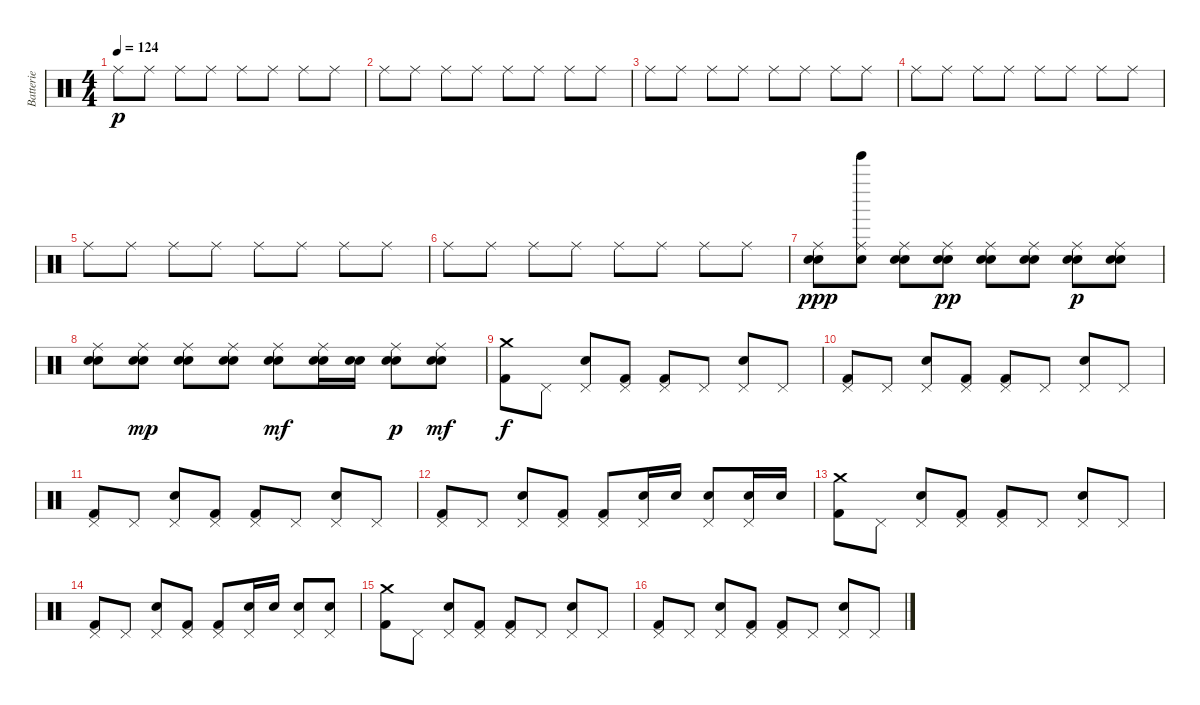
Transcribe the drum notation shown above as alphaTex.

\track ("Batterie" "Batterie") {instrument percussion}
\staff {score}
\articulation defaults
\ts (4 4)
\tempo 124
\clef neutral
\ks c "Ride (middle)".8{dy p} "Ride (middle)".8 "Ride (middle)".8 "Ride (middle)".8 "Ride (middle)".8 "Ride (middle)".8 "Ride (middle)".8 "Ride (middle)".8
|
"Ride (middle)".8 "Ride (middle)".8 "Ride (middle)".8 "Ride (middle)".8 "Ride (middle)".8 "Ride (middle)".8 "Ride (middle)".8 "Ride (middle)".8 |
"Ride (middle)".8 "Ride (middle)".8 "Ride (middle)".8 "Ride (middle)".8 "Ride (middle)".8 "Ride (middle)".8 "Ride (middle)".8 "Ride (middle)".8 |
"Ride (middle)".8 "Ride (middle)".8 "Ride (middle)".8 "Ride (middle)".8 "Ride (middle)".8 "Ride (middle)".8 "Ride (middle)".8 "Ride (middle)".8 |
"Ride (middle)".8 "Ride (middle)".8 "Ride (middle)".8 "Ride (middle)".8 "Ride (middle)".8 "Ride (middle)".8 "Ride (middle)".8 "Ride (middle)".8 |
"Ride (middle)".8 "Ride (middle)".8 "Ride (middle)".8 "Ride (middle)".8 "Ride (middle)".8 "Ride (middle)".8 "Ride (middle)".8 "Ride (middle)".8 |
("Ride (middle)" "Electric Snare (hit)" "Snare (hit) 2").8{dy ppp} ("Ride (middle)" "Electric Snare (hit)" "Tinkle Bell (hit)").8 ("Ride (middle)" "Electric Snare (hit)" "Snare (hit) 2").8 ("Ride (middle)" "Electric Snare (hit)" "Snare (hit) 2").8{dy pp} ("Ride (middle)" "Electric Snare (hit)" "Snare (hit) 2").8 ("Ride (middle)" "Electric Snare (hit)" "Snare (hit) 2").8 ("Ride (middle)" "Electric Snare (hit)" "Snare (hit) 2").8{dy p} ("Ride (middle)" "Electric Snare (hit)" "Snare (hit) 2").8 |
("Ride (middle)" "Electric Snare (hit)" "Snare (hit) 2").8 ("Ride (middle)" "Electric Snare (hit)" "Snare (hit) 2").8{dy mp} ("Ride (middle)" "Electric Snare (hit)" "Snare (hit) 2").8 ("Ride (middle)" "Electric Snare (hit)" "Snare (hit) 2").8 ("Ride (middle)" "Electric Snare (hit)" "Snare (hit) 2").8{dy mf} ("Ride (middle)" "Electric Snare (hit)" "Snare (hit) 2").16 ("Electric Snare (hit)" "Snare (hit) 2").16 ("Ride (middle)" "Electric Snare (hit)" "Snare (hit) 2").8{dy p} ("Ride (middle)" "Electric Snare (hit)" "Snare (hit) 2").8{dy mf} |
("Crash medium (hit)" "Kick (hit) 2").8{dy f} "Pedal Hi-Hat (hit)".8 ("Pedal Hi-Hat (hit)" "Electric Snare (hit)").8 ("Pedal Hi-Hat (hit)" "Kick (hit) 2").8 ("Pedal Hi-Hat (hit)" "Kick (hit) 2").8 "Pedal Hi-Hat (hit)".8 ("Pedal Hi-Hat (hit)" "Electric Snare (hit)").8 "Pedal Hi-Hat (hit)".8 |
("Pedal Hi-Hat (hit)" "Kick (hit) 2").8 "Pedal Hi-Hat (hit)".8 ("Pedal Hi-Hat (hit)" "Electric Snare (hit)").8 ("Pedal Hi-Hat (hit)" "Kick (hit) 2").8 ("Pedal Hi-Hat (hit)" "Kick (hit) 2").8 "Pedal Hi-Hat (hit)".8 ("Pedal Hi-Hat (hit)" "Electric Snare (hit)").8 "Pedal Hi-Hat (hit)".8 |
("Pedal Hi-Hat (hit)" "Kick (hit) 2").8 "Pedal Hi-Hat (hit)".8 ("Pedal Hi-Hat (hit)" "Electric Snare (hit)").8 ("Pedal Hi-Hat (hit)" "Kick (hit) 2").8 ("Pedal Hi-Hat (hit)" "Kick (hit) 2").8 "Pedal Hi-Hat (hit)".8 ("Pedal Hi-Hat (hit)" "Electric Snare (hit)").8 "Pedal Hi-Hat (hit)".8 |
("Pedal Hi-Hat (hit)" "Kick (hit) 2").8 "Pedal Hi-Hat (hit)".8 ("Pedal Hi-Hat (hit)" "Electric Snare (hit)").8 ("Pedal Hi-Hat (hit)" "Kick (hit) 2").8 ("Pedal Hi-Hat (hit)" "Kick (hit) 2").8 ("Pedal Hi-Hat (hit)" "Electric Snare (hit)").16 "Electric Snare (hit)".16 ("Pedal Hi-Hat (hit)" "Electric Snare (hit)").8 ("Pedal Hi-Hat (hit)" "Electric Snare (hit)").16 "Electric Snare (hit)".16 |
("Crash medium (hit)" "Kick (hit) 2").8 "Pedal Hi-Hat (hit)".8 ("Pedal Hi-Hat (hit)" "Electric Snare (hit)").8 ("Pedal Hi-Hat (hit)" "Kick (hit) 2").8 ("Pedal Hi-Hat (hit)" "Kick (hit) 2").8 "Pedal Hi-Hat (hit)".8 ("Pedal Hi-Hat (hit)" "Electric Snare (hit)").8 "Pedal Hi-Hat (hit)".8 |
("Pedal Hi-Hat (hit)" "Kick (hit) 2").8 "Pedal Hi-Hat (hit)".8 ("Pedal Hi-Hat (hit)" "Electric Snare (hit)").8 ("Pedal Hi-Hat (hit)" "Kick (hit) 2").8 ("Pedal Hi-Hat (hit)" "Kick (hit) 2").8 ("Pedal Hi-Hat (hit)" "Electric Snare (hit)").16 "Electric Snare (hit)".16 ("Pedal Hi-Hat (hit)" "Electric Snare (hit)").8 ("Pedal Hi-Hat (hit)" "Electric Snare (hit)").8 |
("Crash medium (hit)" "Kick (hit) 2").8 "Pedal Hi-Hat (hit)".8 ("Pedal Hi-Hat (hit)" "Electric Snare (hit)").8 ("Pedal Hi-Hat (hit)" "Kick (hit) 2").8 ("Pedal Hi-Hat (hit)" "Kick (hit) 2").8 "Pedal Hi-Hat (hit)".8 ("Pedal Hi-Hat (hit)" "Electric Snare (hit)").8 "Pedal Hi-Hat (hit)".8 |
("Pedal Hi-Hat (hit)" "Kick (hit) 2").8 "Pedal Hi-Hat (hit)".8 ("Pedal Hi-Hat (hit)" "Electric Snare (hit)").8 ("Pedal Hi-Hat (hit)" "Kick (hit) 2").8 ("Pedal Hi-Hat (hit)" "Kick (hit) 2").8 "Pedal Hi-Hat (hit)".8 ("Pedal Hi-Hat (hit)" "Electric Snare (hit)").8 "Pedal Hi-Hat (hit)".8
